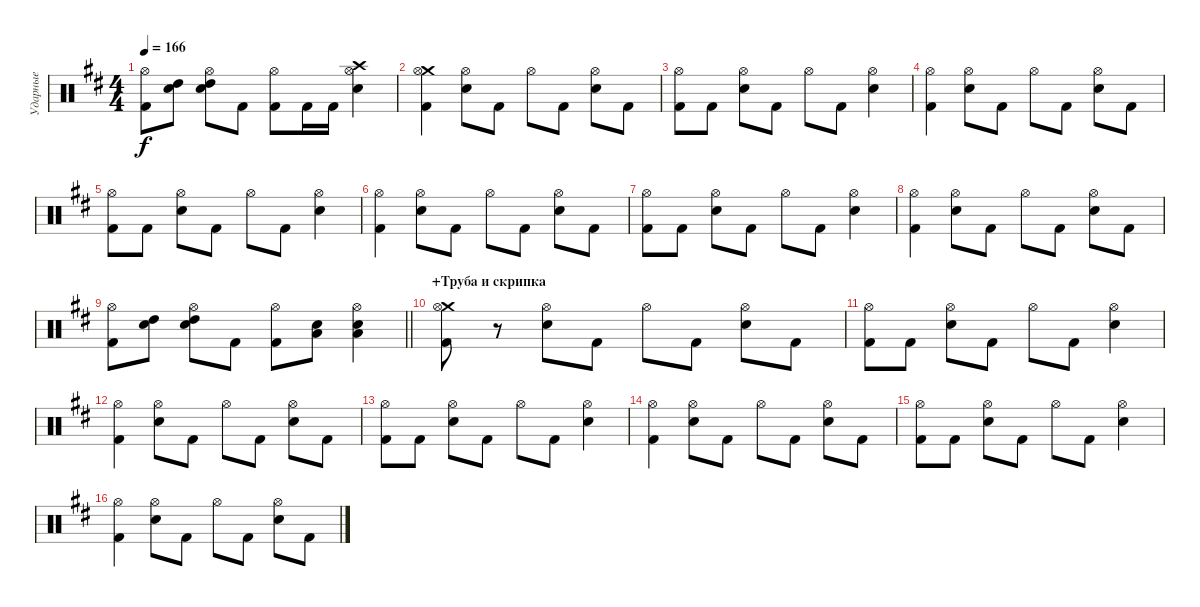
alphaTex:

\track ("Ударные" "Ударные") {instrument percussion}
\staff {score}
\articulation defaults
\ts (4 4)
\tempo 166
\clef neutral
\ks bminor
("Kick (hit) 2" "Hi-Hat (open)").8{dy f} ("High Tom (hit)" "Electric Snare (hit)").8 ("High Tom (hit)" "Electric Snare (hit)" "Hi-Hat (open)").8 "Kick (hit) 2".8 ("Kick (hit) 2" "Hi-Hat (open)").8 "Kick (hit) 2".16 "Kick (hit) 2".16 ("Crash high (hit)" "Electric Snare (hit)" "Hi-Hat (open)").4 |
("Crash medium (hit)" "Kick (hit) 2" "Hi-Hat (open)").4 ("Electric Snare (hit)" "Hi-Hat (open)").8 "Kick (hit) 2".8 "Hi-Hat (open)".8 "Kick (hit) 2".8 ("Electric Snare (hit)" "Hi-Hat (open)").8 "Kick (hit) 2".8 |
("Kick (hit) 2" "Hi-Hat (open)").8 "Kick (hit) 2".8 ("Electric Snare (hit)" "Hi-Hat (open)").8 "Kick (hit) 2".8 "Hi-Hat (open)".8 "Kick (hit) 2".8 ("Electric Snare (hit)" "Hi-Hat (open)").4 |
("Kick (hit) 2" "Hi-Hat (open)").4 ("Electric Snare (hit)" "Hi-Hat (open)").8 "Kick (hit) 2".8 "Hi-Hat (open)".8 "Kick (hit) 2".8 ("Electric Snare (hit)" "Hi-Hat (open)").8 "Kick (hit) 2".8 |
("Kick (hit) 2" "Hi-Hat (open)").8 "Kick (hit) 2".8 ("Electric Snare (hit)" "Hi-Hat (open)").8 "Kick (hit) 2".8 "Hi-Hat (open)".8 "Kick (hit) 2".8 ("Electric Snare (hit)" "Hi-Hat (open)").4 |
("Kick (hit) 2" "Hi-Hat (open)").4 ("Electric Snare (hit)" "Hi-Hat (open)").8 "Kick (hit) 2".8 "Hi-Hat (open)".8 "Kick (hit) 2".8 ("Electric Snare (hit)" "Hi-Hat (open)").8 "Kick (hit) 2".8 |
("Kick (hit) 2" "Hi-Hat (open)").8 "Kick (hit) 2".8 ("Electric Snare (hit)" "Hi-Hat (open)").8 "Kick (hit) 2".8 "Hi-Hat (open)".8 "Kick (hit) 2".8 ("Electric Snare (hit)" "Hi-Hat (open)").4 |
("Kick (hit) 2" "Hi-Hat (open)").4 ("Electric Snare (hit)" "Hi-Hat (open)").8 "Kick (hit) 2".8 "Hi-Hat (open)".8 "Kick (hit) 2".8 ("Electric Snare (hit)" "Hi-Hat (open)").8 "Kick (hit) 2".8 |
\barLineRight lightlight
("Kick (hit) 2" "Hi-Hat (open)").8 ("High Tom (hit)" "Electric Snare (hit)").8 ("High Tom (hit)" "Electric Snare (hit)" "Hi-Hat (open)").8 "Kick (hit) 2".8 ("Kick (hit) 2" "Hi-Hat (open)").8 ("Low Tom (hit)" "Electric Snare (hit)").8 ("Low Tom (hit)" "Electric Snare (hit)" "Hi-Hat (open)").4 |
\section ("" "+Труба и скрипка")
("Crash medium (hit)" "Kick (hit) 2" "Hi-Hat (open)").8 r.8 ("Electric Snare (hit)" "Hi-Hat (open)").8 "Kick (hit) 2".8 "Hi-Hat (open)".8 "Kick (hit) 2".8 ("Electric Snare (hit)" "Hi-Hat (open)").8 "Kick (hit) 2".8 |
("Kick (hit) 2" "Hi-Hat (open)").8 "Kick (hit) 2".8 ("Electric Snare (hit)" "Hi-Hat (open)").8 "Kick (hit) 2".8 "Hi-Hat (open)".8 "Kick (hit) 2".8 ("Electric Snare (hit)" "Hi-Hat (open)").4 |
("Kick (hit) 2" "Hi-Hat (open)").4 ("Electric Snare (hit)" "Hi-Hat (open)").8 "Kick (hit) 2".8 "Hi-Hat (open)".8 "Kick (hit) 2".8 ("Electric Snare (hit)" "Hi-Hat (open)").8 "Kick (hit) 2".8 |
("Kick (hit) 2" "Hi-Hat (open)").8 "Kick (hit) 2".8 ("Electric Snare (hit)" "Hi-Hat (open)").8 "Kick (hit) 2".8 "Hi-Hat (open)".8 "Kick (hit) 2".8 ("Electric Snare (hit)" "Hi-Hat (open)").4 |
("Kick (hit) 2" "Hi-Hat (open)").4 ("Electric Snare (hit)" "Hi-Hat (open)").8 "Kick (hit) 2".8 "Hi-Hat (open)".8 "Kick (hit) 2".8 ("Electric Snare (hit)" "Hi-Hat (open)").8 "Kick (hit) 2".8 |
("Kick (hit) 2" "Hi-Hat (open)").8 "Kick (hit) 2".8 ("Electric Snare (hit)" "Hi-Hat (open)").8 "Kick (hit) 2".8 "Hi-Hat (open)".8 "Kick (hit) 2".8 ("Electric Snare (hit)" "Hi-Hat (open)").4 |
("Kick (hit) 2" "Hi-Hat (open)").4 ("Electric Snare (hit)" "Hi-Hat (open)").8 "Kick (hit) 2".8 "Hi-Hat (open)".8 "Kick (hit) 2".8 ("Electric Snare (hit)" "Hi-Hat (open)").8 "Kick (hit) 2".8
